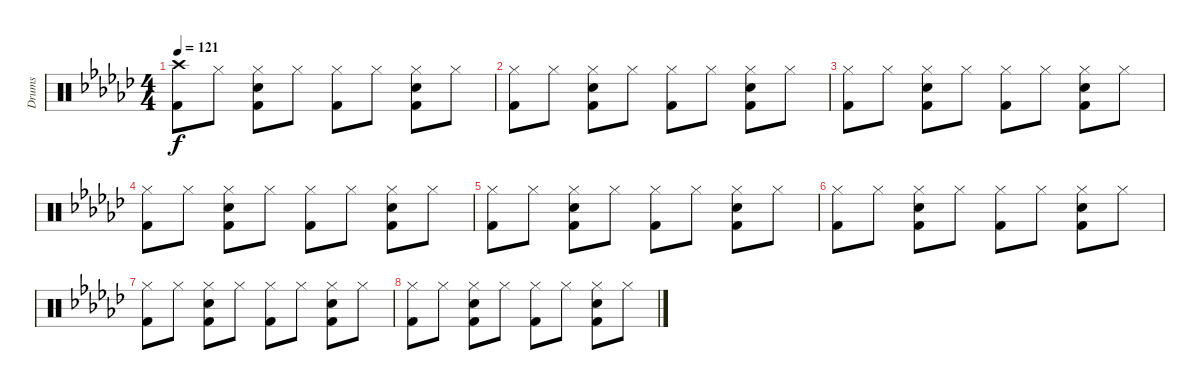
\track ("Drums" "Drums") {instrument percussion}
\staff {score}
\articulation defaults
\ts (4 4)
\tempo 121
\clef neutral
\ks ebminor
("Crash high (hit)" "Kick (hit) 2").8{dy f volume 3} "Hi-Hat (closed)".8 ("Hi-Hat (closed)" "Snare (hit) 2" "Kick (hit) 2").8 "Hi-Hat (closed)".8 ("Hi-Hat (closed)" "Kick (hit) 2").8 "Hi-Hat (closed)".8 ("Hi-Hat (closed)" "Snare (hit) 2" "Kick (hit) 2").8 "Hi-Hat (closed)".8 |
("Hi-Hat (closed)" "Kick (hit) 2").8 "Hi-Hat (closed)".8 ("Hi-Hat (closed)" "Snare (hit) 2" "Kick (hit) 2").8 "Hi-Hat (closed)".8 ("Hi-Hat (closed)" "Kick (hit) 2").8 "Hi-Hat (closed)".8 ("Hi-Hat (closed)" "Snare (hit) 2" "Kick (hit) 2").8 "Hi-Hat (closed)".8 |
("Hi-Hat (closed)" "Kick (hit) 2").8 "Hi-Hat (closed)".8 ("Hi-Hat (closed)" "Snare (hit) 2" "Kick (hit) 2").8 "Hi-Hat (closed)".8 ("Hi-Hat (closed)" "Kick (hit) 2").8 "Hi-Hat (closed)".8 ("Hi-Hat (closed)" "Snare (hit) 2" "Kick (hit) 2").8 "Hi-Hat (closed)".8 |
("Hi-Hat (closed)" "Kick (hit) 2").8 "Hi-Hat (closed)".8 ("Hi-Hat (closed)" "Snare (hit) 2" "Kick (hit) 2").8 "Hi-Hat (closed)".8 ("Hi-Hat (closed)" "Kick (hit) 2").8 "Hi-Hat (closed)".8 ("Hi-Hat (closed)" "Snare (hit) 2" "Kick (hit) 2").8 "Hi-Hat (closed)".8 |
("Hi-Hat (closed)" "Kick (hit) 2").8{volume 0} "Hi-Hat (closed)".8 ("Hi-Hat (closed)" "Snare (hit) 2" "Kick (hit) 2").8 "Hi-Hat (closed)".8 ("Hi-Hat (closed)" "Kick (hit) 2").8 "Hi-Hat (closed)".8 ("Hi-Hat (closed)" "Snare (hit) 2" "Kick (hit) 2").8 "Hi-Hat (closed)".8 |
("Hi-Hat (closed)" "Kick (hit) 2").8 "Hi-Hat (closed)".8 ("Hi-Hat (closed)" "Snare (hit) 2" "Kick (hit) 2").8 "Hi-Hat (closed)".8 ("Hi-Hat (closed)" "Kick (hit) 2").8 "Hi-Hat (closed)".8 ("Hi-Hat (closed)" "Snare (hit) 2" "Kick (hit) 2").8 "Hi-Hat (closed)".8 |
("Hi-Hat (closed)" "Kick (hit) 2").8 "Hi-Hat (closed)".8 ("Hi-Hat (closed)" "Snare (hit) 2" "Kick (hit) 2").8 "Hi-Hat (closed)".8 ("Hi-Hat (closed)" "Kick (hit) 2").8 "Hi-Hat (closed)".8 ("Hi-Hat (closed)" "Snare (hit) 2" "Kick (hit) 2").8 "Hi-Hat (closed)".8 |
("Hi-Hat (closed)" "Kick (hit) 2").8 "Hi-Hat (closed)".8 ("Hi-Hat (closed)" "Snare (hit) 2" "Kick (hit) 2").8 "Hi-Hat (closed)".8 ("Hi-Hat (closed)" "Kick (hit) 2").8 "Hi-Hat (closed)".8 ("Hi-Hat (closed)" "Snare (hit) 2" "Kick (hit) 2").8 "Hi-Hat (closed)".8
